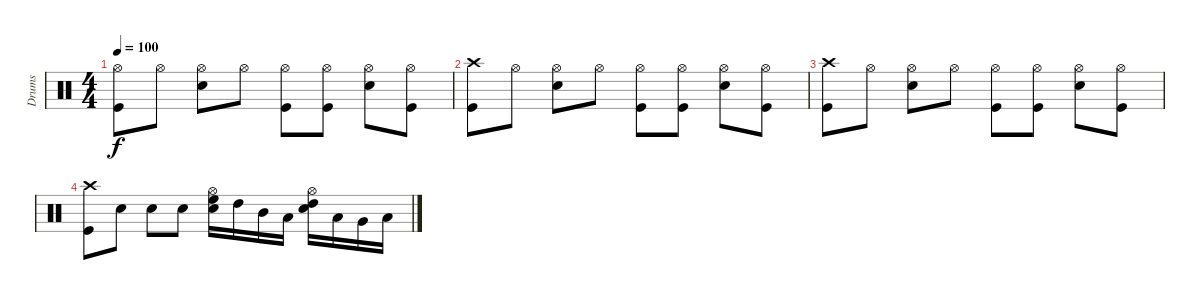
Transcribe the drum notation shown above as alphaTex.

\track ("Drums" "Drums") {instrument percussion}
\staff {score}
\articulation defaults
\ts (4 4)
\tempo 100
\clef neutral
\ks c
("Hi-Hat (open)" "Kick (hit)").8{dy f} "Hi-Hat (open)".8 ("Hi-Hat (open)" "Snare (hit) 2").8 "Hi-Hat (open)".8 ("Hi-Hat (open)" "Kick (hit)").8 ("Hi-Hat (open)" "Kick (hit)").8 ("Hi-Hat (open)" "Snare (hit) 2").8 ("Hi-Hat (open)" "Kick (hit)").8 |
("Crash high (hit)" "Kick (hit)").8 "Hi-Hat (open)".8 ("Hi-Hat (open)" "Snare (hit) 2").8 "Hi-Hat (open)".8 ("Hi-Hat (open)" "Kick (hit)").8 ("Hi-Hat (open)" "Kick (hit)").8 ("Hi-Hat (open)" "Snare (hit) 2").8 ("Hi-Hat (open)" "Kick (hit)").8 |
("Crash high (hit)" "Kick (hit)").8 "Hi-Hat (open)".8 ("Hi-Hat (open)" "Snare (hit) 2").8 "Hi-Hat (open)".8 ("Hi-Hat (open)" "Kick (hit)").8 ("Hi-Hat (open)" "Kick (hit)").8 ("Hi-Hat (open)" "Snare (hit) 2").8 ("Hi-Hat (open)" "Kick (hit)").8 |
("Crash high (hit)" "Kick (hit)").8 "Snare (hit) 2".8 "Snare (hit) 2".8 "Snare (hit) 2".8 ("Hi-Hat (open)" "Snare (hit) 2" "High Floor Tom (hit)").16 "High Tom (hit)".16 "Mid Tom (hit)".16 "Low Tom (hit)".16 ("Hi-Hat (open)" "Snare (hit) 2" "High Tom (hit)").16 "Low Tom (hit)".16 "Very Low Tom (hit)".16 "Low Floor Tom (hit)".16
